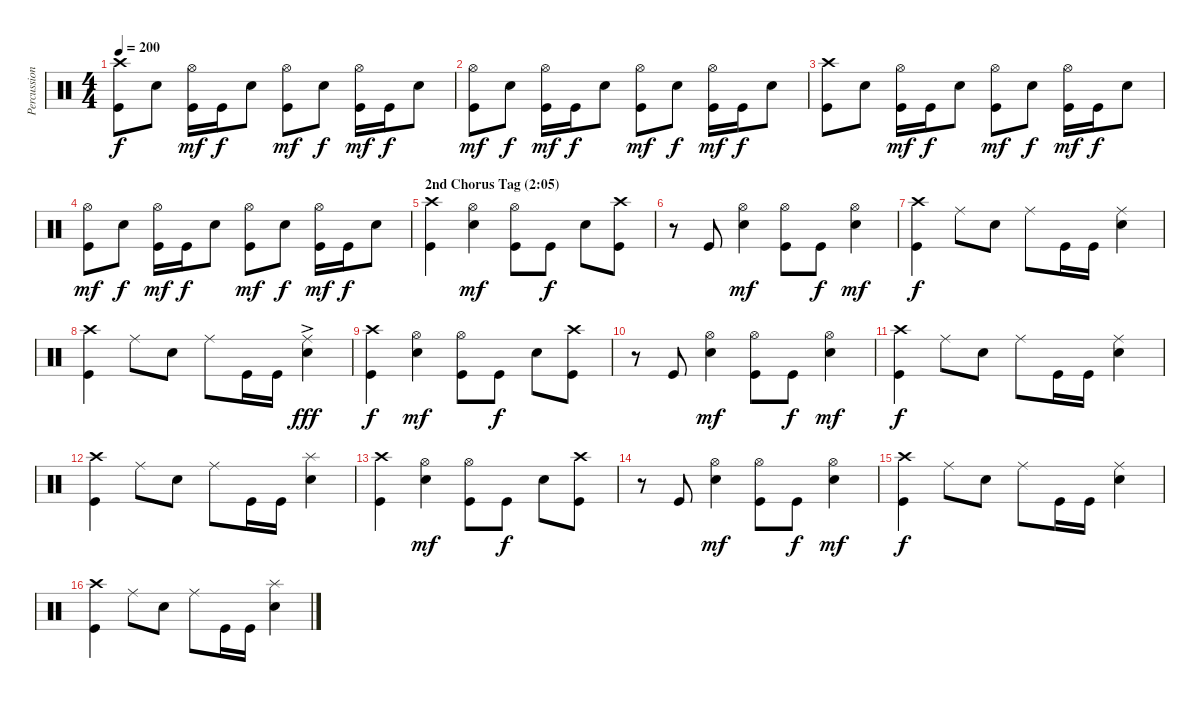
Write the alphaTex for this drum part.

\track ("Percussion" "Percussion") {instrument percussion}
\staff {score}
\articulation defaults
\ts (4 4)
\tempo 200
\clef neutral
\ks c
("Crash high (hit)" "Kick (hit)").8{dy f} "Snare (hit) 2".8 ("Hi-Hat (open)" "Kick (hit)").16{dy mf} "Kick (hit)".16{dy f} "Snare (hit) 2".8 ("Hi-Hat (open)" "Kick (hit)").8{dy mf} "Snare (hit) 2".8{dy f} ("Hi-Hat (open)" "Kick (hit)").16{dy mf} "Kick (hit)".16{dy f} "Snare (hit) 2".8 |
("Hi-Hat (open)" "Kick (hit)").8{dy mf} "Snare (hit) 2".8{dy f} ("Hi-Hat (open)" "Kick (hit)").16{dy mf} "Kick (hit)".16{dy f} "Snare (hit) 2".8 ("Hi-Hat (open)" "Kick (hit)").8{dy mf} "Snare (hit) 2".8{dy f} ("Hi-Hat (open)" "Kick (hit)").16{dy mf} "Kick (hit)".16{dy f} "Snare (hit) 2".8 |
("Crash high (hit)" "Kick (hit)").8 "Snare (hit) 2".8 ("Hi-Hat (open)" "Kick (hit)").16{dy mf} "Kick (hit)".16{dy f} "Snare (hit) 2".8 ("Hi-Hat (open)" "Kick (hit)").8{dy mf} "Snare (hit) 2".8{dy f} ("Hi-Hat (open)" "Kick (hit)").16{dy mf} "Kick (hit)".16{dy f} "Snare (hit) 2".8 |
("Hi-Hat (open)" "Kick (hit)").8{dy mf} "Snare (hit) 2".8{dy f} ("Hi-Hat (open)" "Kick (hit)").16{dy mf} "Kick (hit)".16{dy f} "Snare (hit) 2".8 ("Hi-Hat (open)" "Kick (hit)").8{dy mf} "Snare (hit) 2".8{dy f} ("Hi-Hat (open)" "Kick (hit)").16{dy mf} "Kick (hit)".16{dy f} "Snare (hit) 2".8 |
\section ("" "2nd Chorus Tag (2:05)")
("Crash high (hit)" "Kick (hit)").4 ("Hi-Hat (open)" "Snare (hit) 2").4{dy mf} ("Hi-Hat (open)" "Kick (hit)").8 "Kick (hit)".8{dy f} "Snare (hit) 2".8 ("Crash high (hit)" "Kick (hit)").8 |
r.8 "Kick (hit)".8 ("Hi-Hat (open)" "Snare (hit) 2").4{dy mf} ("Hi-Hat (open)" "Kick (hit)").8 "Kick (hit)".8{dy f} ("Hi-Hat (open)" "Snare (hit) 2").4{dy mf} |
("Crash high (hit)" "Kick (hit)").4{dy f} "Ride (middle)".8 "Snare (hit) 2".8 "Ride (middle)".8 "Kick (hit)".16 "Kick (hit)".16 ("Ride (middle)" "Snare (hit) 2").4 |
("Crash high (hit)" "Kick (hit)").4 "Ride (middle)".8 "Snare (hit) 2".8 "Ride (middle)".8 "Kick (hit)".16 "Kick (hit)".16 ("Ride (middle)"{ac} "Snare (hit) 2").4{dy fff} |
("Crash high (hit)" "Kick (hit)").4{dy f} ("Hi-Hat (open)" "Snare (hit) 2").4{dy mf} ("Hi-Hat (open)" "Kick (hit)").8 "Kick (hit)".8{dy f} "Snare (hit) 2".8 ("Crash high (hit)" "Kick (hit)").8 |
r.8 "Kick (hit)".8 ("Hi-Hat (open)" "Snare (hit) 2").4{dy mf} ("Hi-Hat (open)" "Kick (hit)").8 "Kick (hit)".8{dy f} ("Hi-Hat (open)" "Snare (hit) 2").4{dy mf} |
("Crash high (hit)" "Kick (hit)").4{dy f} "Ride (middle)".8 "Snare (hit) 2".8 "Ride (middle)".8 "Kick (hit)".16 "Kick (hit)".16 ("Ride (middle)" "Snare (hit) 2").4 |
("Crash high (hit)" "Kick (hit)").4 "Ride (middle)".8 "Snare (hit) 2".8 "Ride (middle)".8 "Kick (hit)".16 "Kick (hit)".16 ("Splash (hit)" "Snare (hit) 2").4 |
("Crash high (hit)" "Kick (hit)").4 ("Hi-Hat (open)" "Snare (hit) 2").4{dy mf} ("Hi-Hat (open)" "Kick (hit)").8 "Kick (hit)".8{dy f} "Snare (hit) 2".8 ("Crash high (hit)" "Kick (hit)").8 |
r.8 "Kick (hit)".8 ("Hi-Hat (open)" "Snare (hit) 2").4{dy mf} ("Hi-Hat (open)" "Kick (hit)").8 "Kick (hit)".8{dy f} ("Hi-Hat (open)" "Snare (hit) 2").4{dy mf} |
("Crash high (hit)" "Kick (hit)").4{dy f} "Ride (middle)".8 "Snare (hit) 2".8 "Ride (middle)".8 "Kick (hit)".16 "Kick (hit)".16 ("Ride (middle)" "Snare (hit) 2").4 |
("Crash high (hit)" "Kick (hit)").4 "Ride (middle)".8 "Snare (hit) 2".8 "Ride (middle)".8 "Kick (hit)".16 "Kick (hit)".16 ("Splash (hit)" "Snare (hit) 2").4
